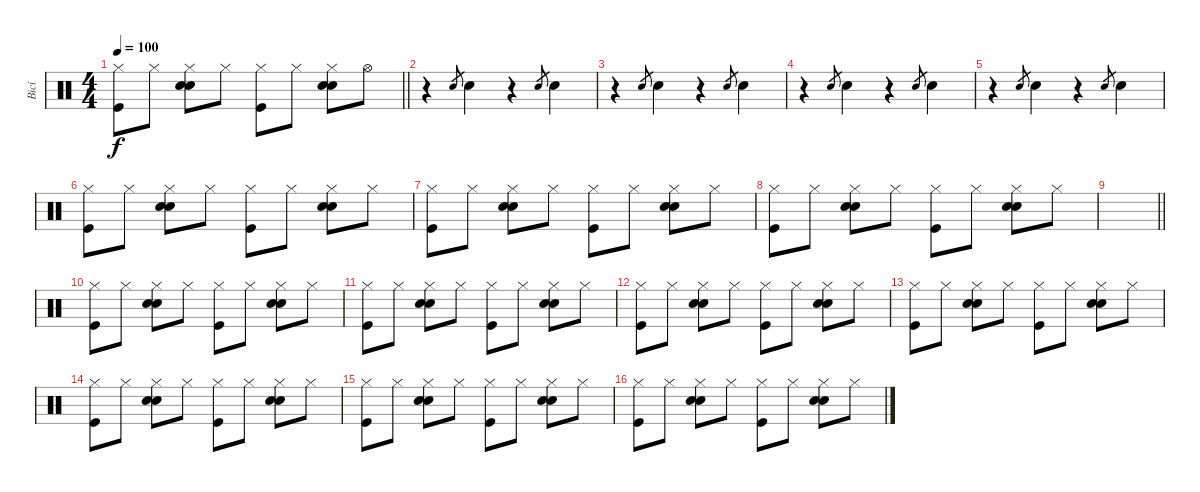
\track ("Bicí" "Bicí") {instrument percussion}
\staff {score}
\articulation defaults
\ts (4 4)
\tempo 100
\clef neutral
\barLineRight lightlight
\ks c
("Hi-Hat (closed)" "Kick (hit)").8{dy f} "Hi-Hat (closed)".8 ("Hi-Hat (closed)" "Hand Clap (hit)" "Electric Snare (hit)").8 "Hi-Hat (closed)".8 ("Hi-Hat (closed)" "Kick (hit)").8 "Hi-Hat (closed)".8 ("Hi-Hat (closed)" "Hand Clap (hit)" "Electric Snare (hit)").8 "Hi-Hat (open)".8 |
\section ("" "")
r.4 "Hand Clap (hit)".8{gr} "Hand Clap (hit)".4 r.4 "Hand Clap (hit)".8{gr} "Hand Clap (hit)".4 |
r.4 "Hand Clap (hit)".8{gr} "Hand Clap (hit)".4 r.4 "Hand Clap (hit)".8{gr} "Hand Clap (hit)".4 |
r.4 "Hand Clap (hit)".8{gr} "Hand Clap (hit)".4 r.4 "Hand Clap (hit)".8{gr} "Hand Clap (hit)".4 |
r.4 "Hand Clap (hit)".8{gr} "Hand Clap (hit)".4 r.4 "Hand Clap (hit)".8{gr} "Hand Clap (hit)".4 |
("Hi-Hat (closed)" "Kick (hit)").8 "Hi-Hat (closed)".8 ("Hi-Hat (closed)" "Hand Clap (hit)" "Electric Snare (hit)").8 "Hi-Hat (closed)".8 ("Hi-Hat (closed)" "Kick (hit)").8 "Hi-Hat (closed)".8 ("Hi-Hat (closed)" "Hand Clap (hit)" "Electric Snare (hit)").8 "Hi-Hat (closed)".8 |
("Hi-Hat (closed)" "Kick (hit)").8 "Hi-Hat (closed)".8 ("Hi-Hat (closed)" "Hand Clap (hit)" "Electric Snare (hit)").8 "Hi-Hat (closed)".8 ("Hi-Hat (closed)" "Kick (hit)").8 "Hi-Hat (closed)".8 ("Hi-Hat (closed)" "Hand Clap (hit)" "Electric Snare (hit)").8 "Hi-Hat (closed)".8 |
("Hi-Hat (closed)" "Kick (hit)").8 "Hi-Hat (closed)".8 ("Hi-Hat (closed)" "Hand Clap (hit)" "Electric Snare (hit)").8 "Hi-Hat (closed)".8 ("Hi-Hat (closed)" "Kick (hit)").8 "Hi-Hat (closed)".8 ("Hi-Hat (closed)" "Hand Clap (hit)" "Electric Snare (hit)").8 "Hi-Hat (closed)".8 |
\barLineRight lightlight
|
("Hi-Hat (closed)" "Kick (hit)").8 "Hi-Hat (closed)".8 ("Hi-Hat (closed)" "Hand Clap (hit)" "Electric Snare (hit)").8 "Hi-Hat (closed)".8 ("Hi-Hat (closed)" "Kick (hit)").8 "Hi-Hat (closed)".8 ("Hi-Hat (closed)" "Hand Clap (hit)" "Electric Snare (hit)").8 "Hi-Hat (closed)".8 |
("Hi-Hat (closed)" "Kick (hit)").8 "Hi-Hat (closed)".8 ("Hi-Hat (closed)" "Hand Clap (hit)" "Electric Snare (hit)").8 "Hi-Hat (closed)".8 ("Hi-Hat (closed)" "Kick (hit)").8 "Hi-Hat (closed)".8 ("Hi-Hat (closed)" "Hand Clap (hit)" "Electric Snare (hit)").8 "Hi-Hat (closed)".8 |
("Hi-Hat (closed)" "Kick (hit)").8 "Hi-Hat (closed)".8 ("Hi-Hat (closed)" "Hand Clap (hit)" "Electric Snare (hit)").8 "Hi-Hat (closed)".8 ("Hi-Hat (closed)" "Kick (hit)").8 "Hi-Hat (closed)".8 ("Hi-Hat (closed)" "Hand Clap (hit)" "Electric Snare (hit)").8 "Hi-Hat (closed)".8 |
("Hi-Hat (closed)" "Kick (hit)").8 "Hi-Hat (closed)".8 ("Hi-Hat (closed)" "Hand Clap (hit)" "Electric Snare (hit)").8 "Hi-Hat (closed)".8 ("Hi-Hat (closed)" "Kick (hit)").8 "Hi-Hat (closed)".8 ("Hi-Hat (closed)" "Hand Clap (hit)" "Electric Snare (hit)").8 "Hi-Hat (closed)".8 |
("Hi-Hat (closed)" "Kick (hit)").8 "Hi-Hat (closed)".8 ("Hi-Hat (closed)" "Hand Clap (hit)" "Electric Snare (hit)").8 "Hi-Hat (closed)".8 ("Hi-Hat (closed)" "Kick (hit)").8 "Hi-Hat (closed)".8 ("Hi-Hat (closed)" "Hand Clap (hit)" "Electric Snare (hit)").8 "Hi-Hat (closed)".8 |
("Hi-Hat (closed)" "Kick (hit)").8 "Hi-Hat (closed)".8 ("Hi-Hat (closed)" "Hand Clap (hit)" "Electric Snare (hit)").8 "Hi-Hat (closed)".8 ("Hi-Hat (closed)" "Kick (hit)").8 "Hi-Hat (closed)".8 ("Hi-Hat (closed)" "Hand Clap (hit)" "Electric Snare (hit)").8 "Hi-Hat (closed)".8 |
("Hi-Hat (closed)" "Kick (hit)").8 "Hi-Hat (closed)".8 ("Hi-Hat (closed)" "Hand Clap (hit)" "Electric Snare (hit)").8 "Hi-Hat (closed)".8 ("Hi-Hat (closed)" "Kick (hit)").8 "Hi-Hat (closed)".8 ("Hi-Hat (closed)" "Hand Clap (hit)" "Electric Snare (hit)").8 "Hi-Hat (closed)".8
